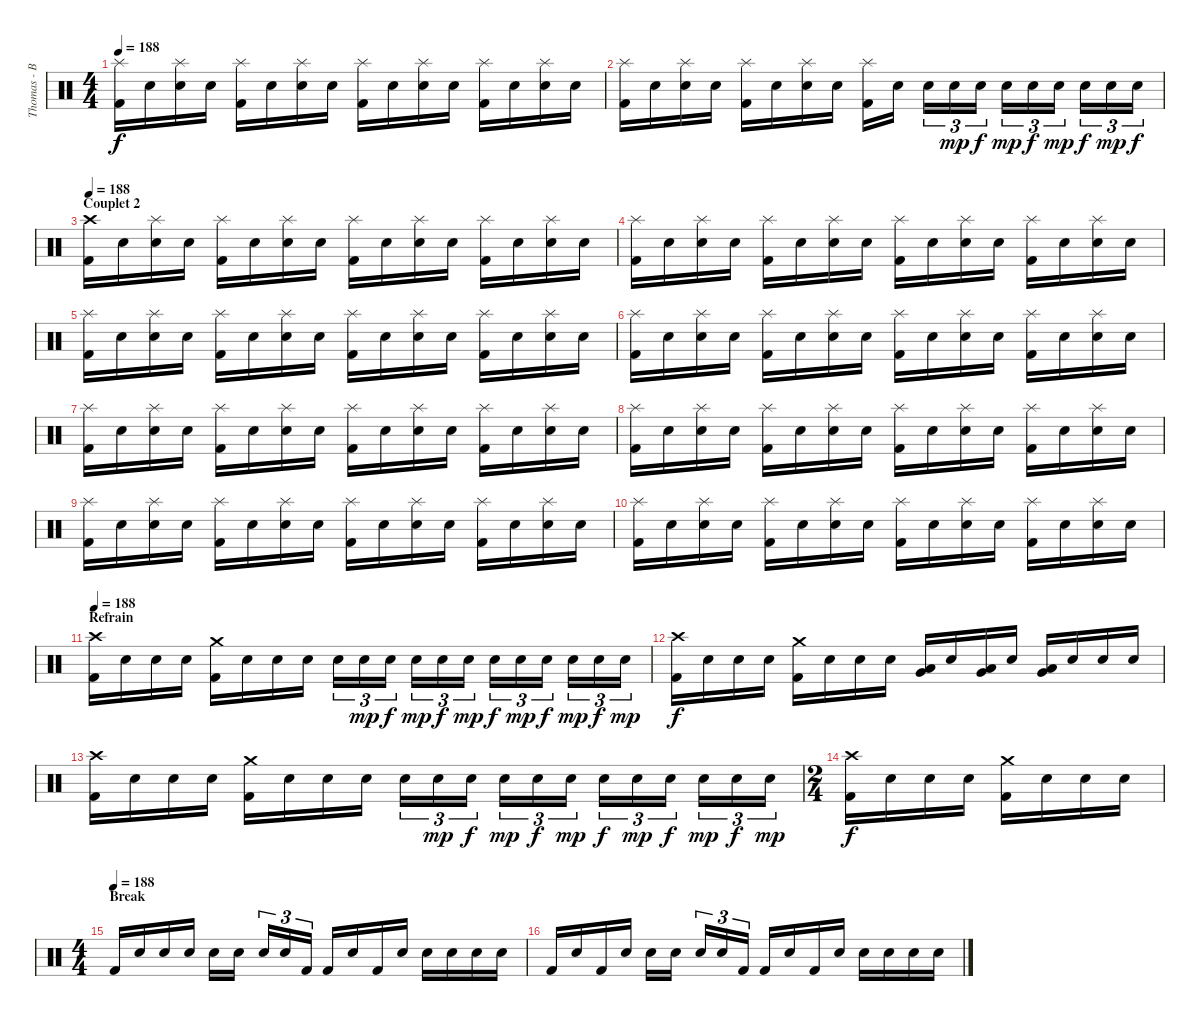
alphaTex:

\track ("Thomas - Batterie" "Thomas - B") {instrument percussion}
\staff {score}
\articulation defaults
\ts (4 4)
\tempo 188
\clef neutral
\ks c
("Splash (hit)" "Kick (hit) 2").16{dy f} "Snare (hit)".16 ("Splash (hit)" "Electric Snare (hit)").16 "Snare (hit)".16 ("Splash (hit)" "Kick (hit) 2").16 "Snare (hit)".16 ("Splash (hit)" "Electric Snare (hit)").16 "Snare (hit)".16 ("Splash (hit)" "Kick (hit) 2").16 "Snare (hit)".16 ("Splash (hit)" "Electric Snare (hit)").16 "Snare (hit)".16 ("Splash (hit)" "Kick (hit) 2").16 "Snare (hit)".16 ("Splash (hit)" "Electric Snare (hit)").16 "Snare (hit)".16 |
("Splash (hit)" "Kick (hit) 2").16 "Snare (hit)".16 ("Splash (hit)" "Electric Snare (hit)").16 "Snare (hit)".16 ("Splash (hit)" "Kick (hit) 2").16 "Snare (hit)".16 ("Splash (hit)" "Electric Snare (hit)").16 "Snare (hit)".16 ("Splash (hit)" "Kick (hit) 2").16 "Snare (hit)".16 "Electric Snare (hit)".16{tu (3 2)} "Electric Snare (hit)".16{tu (3 2) dy mp} "Electric Snare (hit)".16{tu (3 2) dy f} "Electric Snare (hit)".16{tu (3 2) dy mp} "Electric Snare (hit)".16{tu (3 2) dy f} "Electric Snare (hit)".16{tu (3 2) dy mp} "Electric Snare (hit)".16{tu (3 2) dy f} "Electric Snare (hit)".16{tu (3 2) dy mp} "Electric Snare (hit)".16{tu (3 2) dy f} |
\section ("" "Couplet 2")
\tempo 188
("Crash high (hit)" "Kick (hit) 2").16{volume 16 balance 8} "Snare (hit)".16 ("Splash (hit)" "Electric Snare (hit)").16 "Snare (hit)".16 ("Splash (hit)" "Kick (hit) 2").16 "Snare (hit)".16 ("Splash (hit)" "Electric Snare (hit)").16 "Snare (hit)".16 ("Splash (hit)" "Kick (hit) 2").16 "Snare (hit)".16 ("Splash (hit)" "Electric Snare (hit)").16 "Snare (hit)".16 ("Splash (hit)" "Kick (hit) 2").16 "Snare (hit)".16 ("Splash (hit)" "Electric Snare (hit)").16 "Snare (hit)".16 |
("Splash (hit)" "Kick (hit) 2").16 "Snare (hit)".16 ("Splash (hit)" "Electric Snare (hit)").16 "Snare (hit)".16 ("Splash (hit)" "Kick (hit) 2").16 "Snare (hit)".16 ("Splash (hit)" "Electric Snare (hit)").16 "Snare (hit)".16 ("Splash (hit)" "Kick (hit) 2").16 "Snare (hit)".16 ("Splash (hit)" "Electric Snare (hit)").16 "Snare (hit)".16 ("Splash (hit)" "Kick (hit) 2").16 "Snare (hit)".16 ("Splash (hit)" "Electric Snare (hit)").16 "Snare (hit)".16 |
("Splash (hit)" "Kick (hit) 2").16 "Snare (hit)".16 ("Splash (hit)" "Electric Snare (hit)").16 "Snare (hit)".16 ("Splash (hit)" "Kick (hit) 2").16 "Snare (hit)".16 ("Splash (hit)" "Electric Snare (hit)").16 "Snare (hit)".16 ("Splash (hit)" "Kick (hit) 2").16 "Snare (hit)".16 ("Splash (hit)" "Electric Snare (hit)").16 "Snare (hit)".16 ("Splash (hit)" "Kick (hit) 2").16 "Snare (hit)".16 ("Splash (hit)" "Electric Snare (hit)").16 "Snare (hit)".16 |
("Splash (hit)" "Kick (hit) 2").16 "Snare (hit)".16 ("Splash (hit)" "Electric Snare (hit)").16 "Snare (hit)".16 ("Splash (hit)" "Kick (hit) 2").16 "Snare (hit)".16 ("Splash (hit)" "Electric Snare (hit)").16 "Snare (hit)".16 ("Splash (hit)" "Kick (hit) 2").16 "Snare (hit)".16 ("Splash (hit)" "Electric Snare (hit)").16 "Snare (hit)".16 ("Splash (hit)" "Kick (hit) 2").16 "Snare (hit)".16 ("Splash (hit)" "Electric Snare (hit)").16 "Snare (hit)".16 |
("Splash (hit)" "Kick (hit) 2").16 "Snare (hit)".16 ("Splash (hit)" "Electric Snare (hit)").16 "Snare (hit)".16 ("Splash (hit)" "Kick (hit) 2").16 "Snare (hit)".16 ("Splash (hit)" "Electric Snare (hit)").16 "Snare (hit)".16 ("Splash (hit)" "Kick (hit) 2").16 "Snare (hit)".16 ("Splash (hit)" "Electric Snare (hit)").16 "Snare (hit)".16 ("Splash (hit)" "Kick (hit) 2").16 "Snare (hit)".16 ("Splash (hit)" "Electric Snare (hit)").16 "Snare (hit)".16 |
("Splash (hit)" "Kick (hit) 2").16 "Snare (hit)".16 ("Splash (hit)" "Electric Snare (hit)").16 "Snare (hit)".16 ("Splash (hit)" "Kick (hit) 2").16 "Snare (hit)".16 ("Splash (hit)" "Electric Snare (hit)").16 "Snare (hit)".16 ("Splash (hit)" "Kick (hit) 2").16 "Snare (hit)".16 ("Splash (hit)" "Electric Snare (hit)").16 "Snare (hit)".16 ("Splash (hit)" "Kick (hit) 2").16 "Snare (hit)".16 ("Splash (hit)" "Electric Snare (hit)").16 "Snare (hit)".16 |
("Splash (hit)" "Kick (hit) 2").16 "Snare (hit)".16 ("Splash (hit)" "Electric Snare (hit)").16 "Snare (hit)".16 ("Splash (hit)" "Kick (hit) 2").16 "Snare (hit)".16 ("Splash (hit)" "Electric Snare (hit)").16 "Snare (hit)".16 ("Splash (hit)" "Kick (hit) 2").16 "Snare (hit)".16 ("Splash (hit)" "Electric Snare (hit)").16 "Snare (hit)".16 ("Splash (hit)" "Kick (hit) 2").16 "Snare (hit)".16 ("Splash (hit)" "Electric Snare (hit)").16 "Snare (hit)".16 |
("Splash (hit)" "Kick (hit) 2").16 "Snare (hit)".16 ("Splash (hit)" "Electric Snare (hit)").16 "Snare (hit)".16 ("Splash (hit)" "Kick (hit) 2").16 "Snare (hit)".16 ("Splash (hit)" "Electric Snare (hit)").16 "Snare (hit)".16 ("Splash (hit)" "Kick (hit) 2").16 "Snare (hit)".16 ("Splash (hit)" "Electric Snare (hit)").16 "Snare (hit)".16 ("Splash (hit)" "Kick (hit) 2").16 "Snare (hit)".16 ("Splash (hit)" "Electric Snare (hit)").16 "Snare (hit)".16 |
\section ("" "Refrain")
\tempo 188
("Crash high (hit)" "Kick (hit) 2").16{volume 16 balance 8} "Snare (hit)".16 "Snare (hit)".16 "Snare (hit)".16 ("Crash medium (hit)" "Kick (hit) 2").16 "Snare (hit)".16 "Snare (hit)".16 "Snare (hit)".16 "Electric Snare (hit)".16{tu (3 2)} "Electric Snare (hit)".16{tu (3 2) dy mp} "Electric Snare (hit)".16{tu (3 2) dy f} "Electric Snare (hit)".16{tu (3 2) dy mp} "Electric Snare (hit)".16{tu (3 2) dy f} "Electric Snare (hit)".16{tu (3 2) dy mp} "Electric Snare (hit)".16{tu (3 2) dy f} "Electric Snare (hit)".16{tu (3 2) dy mp} "Electric Snare (hit)".16{tu (3 2) dy f} "Electric Snare (hit)".16{tu (3 2) dy mp} "Electric Snare (hit)".16{tu (3 2) dy f} "Electric Snare (hit)".16{tu (3 2) dy mp} |
("Crash high (hit)" "Kick (hit) 2").16{dy f} "Snare (hit)".16 "Snare (hit)".16 "Snare (hit)".16 ("Crash medium (hit)" "Kick (hit) 2").16 "Snare (hit)".16 "Snare (hit)".16 "Snare (hit)".16 ("Very Low Tom (hit)" "Low Floor Tom (hit)").16 "Snare (hit)".16 ("Very Low Tom (hit)" "Low Floor Tom (hit)").16 "Snare (hit)".16 ("Very Low Tom (hit)" "Low Floor Tom (hit)").16 "Snare (hit)".16 "Snare (hit)".16 "Snare (hit)".16 |
("Crash high (hit)" "Kick (hit) 2").16 "Snare (hit)".16 "Snare (hit)".16 "Snare (hit)".16 ("Crash medium (hit)" "Kick (hit) 2").16 "Snare (hit)".16 "Snare (hit)".16 "Snare (hit)".16 "Electric Snare (hit)".16{tu (3 2)} "Electric Snare (hit)".16{tu (3 2) dy mp} "Electric Snare (hit)".16{tu (3 2) dy f} "Electric Snare (hit)".16{tu (3 2) dy mp} "Electric Snare (hit)".16{tu (3 2) dy f} "Electric Snare (hit)".16{tu (3 2) dy mp} "Electric Snare (hit)".16{tu (3 2) dy f} "Electric Snare (hit)".16{tu (3 2) dy mp} "Electric Snare (hit)".16{tu (3 2) dy f} "Electric Snare (hit)".16{tu (3 2) dy mp} "Electric Snare (hit)".16{tu (3 2) dy f} "Electric Snare (hit)".16{tu (3 2) dy mp} |
\ts (2 4)
("Crash high (hit)" "Kick (hit) 2").16{dy f} "Snare (hit)".16 "Snare (hit)".16 "Snare (hit)".16 ("Crash medium (hit)" "Kick (hit) 2").16 "Snare (hit)".16 "Snare (hit)".16 "Snare (hit)".16 |
\ts (4 4)
\section ("" "Break")
\tempo (188)
"Kick (hit) 2".16{volume 16 balance 8} "Snare (hit)".16 "Snare (hit)".16 "Snare (hit)".16 "Electric Snare (hit)".16 "Snare (hit)".16 "Snare (hit)".16{tu (3 2)} "Snare (hit)".16{tu (3 2)} "Kick (hit) 2".16{tu (3 2)} "Kick (hit) 2".16 "Snare (hit)".16 "Kick (hit) 2".16 "Snare (hit)".16 "Electric Snare (hit)".16 "Snare (hit)".16 "Snare (hit)".16 "Snare (hit)".16 |
"Kick (hit) 2".16 "Snare (hit)".16 "Kick (hit) 2".16 "Snare (hit)".16 "Electric Snare (hit)".16 "Snare (hit)".16 "Snare (hit)".16{tu (3 2)} "Snare (hit)".16{tu (3 2)} "Kick (hit) 2".16{tu (3 2)} "Kick (hit) 2".16 "Snare (hit)".16 "Kick (hit) 2".16 "Snare (hit)".16 "Electric Snare (hit)".16 "Snare (hit)".16 "Snare (hit)".16 "Snare (hit)".16
